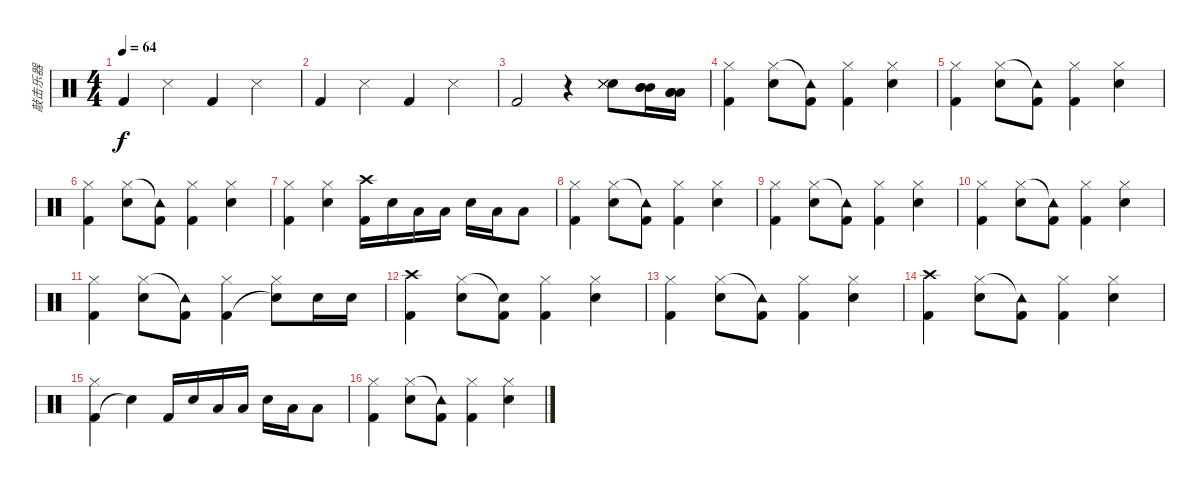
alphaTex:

\track ("敲击乐器" "敲击乐器") {instrument percussion}
\staff {score}
\articulation defaults
\ts (4 4)
\tempo 64
\clef neutral
\ks c "Kick (hit) 2".4{dy f} "Snare (side stick) 3".4 "Kick (hit) 2".4 "Snare (side stick) 3".4
|
"Kick (hit) 2".4 "Snare (side stick) 3".4 "Kick (hit) 2".4 "Snare (side stick) 3".4 |
"Kick (hit) 2".2 r.4 ("Electric Snare (hit)" "Metronome (hit)" "Metronome (hit)" "Metronome (hit)").8 ("Mid Tom (hit)" "Mid Tom (hit)" "Mid Tom (hit)").16 ("Low Tom (hit)" "Low Tom (hit)" "Low Tom (hit)").16 |
("Kick (hit) 2" "Hi-Hat (closed)").4 ("Electric Snare (hit)" "Hi-Hat (closed)").8 ("Kick (hit) 2" "Tambourine (hit)"{t}).8 ("Kick (hit) 2" "Hi-Hat (closed)").4 ("Electric Snare (hit)" "Hi-Hat (closed)").4 |
("Kick (hit) 2" "Hi-Hat (closed)").4 ("Electric Snare (hit)" "Hi-Hat (closed)").8 ("Kick (hit) 2" "Tambourine (hit)"{t}).8 ("Kick (hit) 2" "Hi-Hat (closed)").4 ("Electric Snare (hit)" "Hi-Hat (closed)").4 |
("Kick (hit) 2" "Hi-Hat (closed)").4 ("Electric Snare (hit)" "Hi-Hat (closed)").8 ("Kick (hit) 2" "Tambourine (hit)"{t}).8 ("Kick (hit) 2" "Hi-Hat (closed)").4 ("Electric Snare (hit)" "Hi-Hat (closed)").4 |
("Kick (hit) 2" "Hi-Hat (closed)").4 ("Electric Snare (hit)" "Hi-Hat (closed)").4 ("Kick (hit) 2" "Crash high (hit)").16 "Electric Snare (hit)".16 "Low Tom (hit)".16 "Low Tom (hit)".16 "Electric Snare (hit)".16 "Low Tom (hit)".16 "Low Tom (hit)".8 |
("Kick (hit) 2" "Hi-Hat (closed)").4 ("Electric Snare (hit)" "Hi-Hat (closed)").8 ("Kick (hit) 2" "Tambourine (hit)"{t}).8 ("Kick (hit) 2" "Hi-Hat (closed)").4 ("Electric Snare (hit)" "Hi-Hat (closed)").4 |
("Kick (hit) 2" "Hi-Hat (closed)").4 ("Electric Snare (hit)" "Hi-Hat (closed)").8 ("Kick (hit) 2" "Tambourine (hit)"{t}).8 ("Kick (hit) 2" "Hi-Hat (closed)").4 ("Electric Snare (hit)" "Hi-Hat (closed)").4 |
("Kick (hit) 2" "Hi-Hat (closed)").4 ("Electric Snare (hit)" "Hi-Hat (closed)").8 ("Kick (hit) 2" "Tambourine (hit)"{t}).8 ("Kick (hit) 2" "Hi-Hat (closed)").4 ("Electric Snare (hit)" "Hi-Hat (closed)").4 |
("Kick (hit) 2" "Hi-Hat (closed)").4 ("Electric Snare (hit)" "Hi-Hat (closed)").8 ("Kick (hit) 2" "Tambourine (hit)"{t}).8 ("Kick (hit) 2" "Hi-Hat (closed)").4 ("Electric Snare (hit)"{t} "Hi-Hat (closed)").8 "Electric Snare (hit)".16 "Electric Snare (hit)".16 |
("Kick (hit) 2" "Crash high (hit)").4 ("Electric Snare (hit)" "Hi-Hat (closed)").8 ("Kick (hit) 2" "Snare (hit)"{t}).8 ("Kick (hit) 2" "Hi-Hat (closed)").4 ("Electric Snare (hit)" "Hi-Hat (closed)").4 |
("Kick (hit) 2" "Hi-Hat (closed)").4 ("Electric Snare (hit)" "Hi-Hat (closed)").8 ("Kick (hit) 2" "Tambourine (hit)"{t}).8 ("Kick (hit) 2" "Hi-Hat (closed)").4 ("Electric Snare (hit)" "Hi-Hat (closed)").4 |
("Kick (hit) 2" "Crash high (hit)").4 ("Electric Snare (hit)" "Hi-Hat (closed)").8 ("Kick (hit) 2" "Tambourine (hit)"{t}).8 ("Kick (hit) 2" "Hi-Hat (closed)").4 ("Electric Snare (hit)" "Hi-Hat (closed)").4 |
("Kick (hit) 2" "Hi-Hat (closed)").4 "Snare (hit)"{t}.4 "Kick (hit) 2".16 "Electric Snare (hit)".16 "Low Tom (hit)".16 "Low Tom (hit)".16 "Electric Snare (hit)".16 "Low Tom (hit)".16 "Low Tom (hit)".8 |
("Kick (hit) 2" "Hi-Hat (closed)").4 ("Electric Snare (hit)" "Hi-Hat (closed)").8 ("Kick (hit) 2" "Tambourine (hit)"{t}).8 ("Kick (hit) 2" "Hi-Hat (closed)").4 ("Electric Snare (hit)" "Hi-Hat (closed)").4
